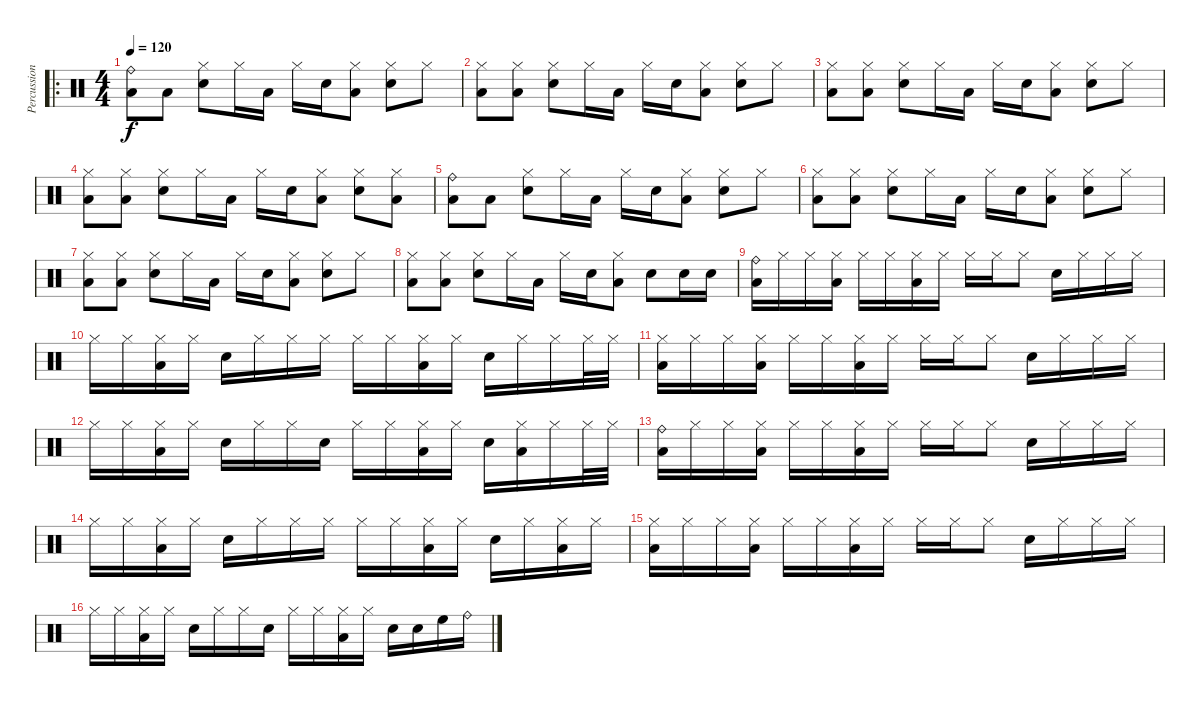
\track ("Percussion" "Percussion") {instrument percussion}
\staff {score}
\articulation defaults
\ro
\ts (4 4)
\tempo 120
\clef neutral
\ks c
("Ride (bell)" "Low Floor Tom (hit)").8{dy f} "Low Floor Tom (hit)".8 ("Hi-Hat (closed)" "Snare (hit) 2").8 "Hi-Hat (closed)".16 "Low Floor Tom (hit)".16 "Hi-Hat (closed)".16 "Snare (hit) 2".16 ("Hi-Hat (closed)" "Low Floor Tom (hit)").8 ("Hi-Hat (closed)" "Snare (hit) 2").8 "Hi-Hat (closed)".8 |
("Hi-Hat (closed)" "Low Floor Tom (hit)").8 ("Hi-Hat (closed)" "Low Floor Tom (hit)").8 ("Hi-Hat (closed)" "Snare (hit) 2").8 "Hi-Hat (closed)".16 "Low Floor Tom (hit)".16 "Hi-Hat (closed)".16 "Snare (hit) 2".16 ("Hi-Hat (closed)" "Low Floor Tom (hit)").8 ("Hi-Hat (closed)" "Snare (hit) 2").8 "Hi-Hat (closed)".8 |
("Hi-Hat (closed)" "Low Floor Tom (hit)").8 ("Hi-Hat (closed)" "Low Floor Tom (hit)").8 ("Hi-Hat (closed)" "Snare (hit) 2").8 "Hi-Hat (closed)".16 "Low Floor Tom (hit)".16 "Hi-Hat (closed)".16 "Snare (hit) 2".16 ("Hi-Hat (closed)" "Low Floor Tom (hit)").8 ("Hi-Hat (closed)" "Snare (hit) 2").8 "Hi-Hat (closed)".8 |
("Hi-Hat (closed)" "Low Floor Tom (hit)").8 ("Hi-Hat (closed)" "Low Floor Tom (hit)").8 ("Hi-Hat (closed)" "Snare (hit) 2").8 "Hi-Hat (closed)".16 "Low Floor Tom (hit)".16 "Hi-Hat (closed)".16 "Snare (hit) 2".16 ("Hi-Hat (closed)" "Low Floor Tom (hit)").8 ("Hi-Hat (closed)" "Snare (hit) 2").8 ("Hi-Hat (closed)" "Low Floor Tom (hit)").8 |
("Ride (bell)" "Low Floor Tom (hit)").8 "Low Floor Tom (hit)".8 ("Hi-Hat (closed)" "Snare (hit) 2").8 "Hi-Hat (closed)".16 "Low Floor Tom (hit)".16 "Hi-Hat (closed)".16 "Snare (hit) 2".16 ("Hi-Hat (closed)" "Low Floor Tom (hit)").8 ("Hi-Hat (closed)" "Snare (hit) 2").8 "Hi-Hat (closed)".8 |
("Hi-Hat (closed)" "Low Floor Tom (hit)").8 ("Hi-Hat (closed)" "Low Floor Tom (hit)").8 ("Hi-Hat (closed)" "Snare (hit) 2").8 "Hi-Hat (closed)".16 "Low Floor Tom (hit)".16 "Hi-Hat (closed)".16 "Snare (hit) 2".16 ("Hi-Hat (closed)" "Low Floor Tom (hit)").8 ("Hi-Hat (closed)" "Snare (hit) 2").8 "Hi-Hat (closed)".8 |
("Hi-Hat (closed)" "Low Floor Tom (hit)").8 ("Hi-Hat (closed)" "Low Floor Tom (hit)").8 ("Hi-Hat (closed)" "Snare (hit) 2").8 "Hi-Hat (closed)".16 "Low Floor Tom (hit)".16 "Hi-Hat (closed)".16 "Snare (hit) 2".16 ("Hi-Hat (closed)" "Low Floor Tom (hit)").8 ("Hi-Hat (closed)" "Snare (hit) 2").8 "Hi-Hat (closed)".8 |
("Hi-Hat (closed)" "Low Floor Tom (hit)").8 ("Hi-Hat (closed)" "Low Floor Tom (hit)").8 ("Hi-Hat (closed)" "Snare (hit) 2").8 "Hi-Hat (closed)".16 "Low Floor Tom (hit)".16 "Hi-Hat (closed)".16 "Snare (hit) 2".16 ("Hi-Hat (closed)" "Low Floor Tom (hit)").8 "Snare (hit) 2".8 "Snare (hit) 2".16 "Snare (hit) 2".16 |
("Ride (bell)" "Low Floor Tom (hit)").16 "Hi-Hat (closed)".16 "Hi-Hat (closed)".16 ("Hi-Hat (closed)" "Low Floor Tom (hit)").16 "Hi-Hat (closed)".16 "Hi-Hat (closed)".16 ("Hi-Hat (closed)" "Low Floor Tom (hit)").16 "Hi-Hat (closed)".16 "Hi-Hat (closed)".16 "Hi-Hat (closed)".16 "Hi-Hat (closed)".8 "Snare (hit) 2".16 "Hi-Hat (closed)".16 "Hi-Hat (closed)".16 "Hi-Hat (closed)".16 |
"Hi-Hat (closed)".16 "Hi-Hat (closed)".16 ("Hi-Hat (closed)" "Low Floor Tom (hit)").16 "Hi-Hat (closed)".16 "Snare (hit) 2".16 "Hi-Hat (closed)".16 "Hi-Hat (closed)".16 "Hi-Hat (closed)".16 "Hi-Hat (closed)".16 "Hi-Hat (closed)".16 ("Hi-Hat (closed)" "Low Floor Tom (hit)").16 "Hi-Hat (closed)".16 "Snare (hit) 2".16 "Hi-Hat (closed)".16 "Hi-Hat (closed)".16 "Hi-Hat (closed)".32 "Hi-Hat (closed)".32 |
("Hi-Hat (closed)" "Low Floor Tom (hit)").16 "Hi-Hat (closed)".16 "Hi-Hat (closed)".16 ("Hi-Hat (closed)" "Low Floor Tom (hit)").16 "Hi-Hat (closed)".16 "Hi-Hat (closed)".16 ("Hi-Hat (closed)" "Low Floor Tom (hit)").16 "Hi-Hat (closed)".16 "Hi-Hat (closed)".16 "Hi-Hat (closed)".16 "Hi-Hat (closed)".8 "Snare (hit) 2".16 "Hi-Hat (closed)".16 "Hi-Hat (closed)".16 "Hi-Hat (closed)".16 |
"Hi-Hat (closed)".16 "Hi-Hat (closed)".16 ("Hi-Hat (closed)" "Low Floor Tom (hit)").16 "Hi-Hat (closed)".16 "Snare (hit) 2".16 "Hi-Hat (closed)".16 "Hi-Hat (closed)".16 "Snare (hit) 2".16 "Hi-Hat (closed)".16 "Hi-Hat (closed)".16 ("Hi-Hat (closed)" "Low Floor Tom (hit)").16 "Hi-Hat (closed)".16 "Snare (hit) 2".16 ("Hi-Hat (closed)" "Low Floor Tom (hit)").16 "Hi-Hat (closed)".16 "Hi-Hat (closed)".32 "Hi-Hat (closed)".32 |
("Ride (bell)" "Low Floor Tom (hit)").16 "Hi-Hat (closed)".16 "Hi-Hat (closed)".16 ("Hi-Hat (closed)" "Low Floor Tom (hit)").16 "Hi-Hat (closed)".16 "Hi-Hat (closed)".16 ("Hi-Hat (closed)" "Low Floor Tom (hit)").16 "Hi-Hat (closed)".16 "Hi-Hat (closed)".16 "Hi-Hat (closed)".16 "Hi-Hat (closed)".8 "Snare (hit) 2".16 "Hi-Hat (closed)".16 "Hi-Hat (closed)".16 "Hi-Hat (closed)".16 |
"Hi-Hat (closed)".16 "Hi-Hat (closed)".16 ("Hi-Hat (closed)" "Low Floor Tom (hit)").16 "Hi-Hat (closed)".16 "Snare (hit) 2".16 "Hi-Hat (closed)".16 "Hi-Hat (closed)".16 "Hi-Hat (closed)".16 "Hi-Hat (closed)".16 "Hi-Hat (closed)".16 ("Hi-Hat (closed)" "Low Floor Tom (hit)").16 "Hi-Hat (closed)".16 "Snare (hit) 2".16 "Hi-Hat (closed)".16 ("Hi-Hat (closed)" "Low Floor Tom (hit)").16 "Hi-Hat (closed)".16 |
("Hi-Hat (closed)" "Low Floor Tom (hit)").16 "Hi-Hat (closed)".16 "Hi-Hat (closed)".16 ("Hi-Hat (closed)" "Low Floor Tom (hit)").16 "Hi-Hat (closed)".16 "Hi-Hat (closed)".16 ("Hi-Hat (closed)" "Low Floor Tom (hit)").16 "Hi-Hat (closed)".16 "Hi-Hat (closed)".16 "Hi-Hat (closed)".16 "Hi-Hat (closed)".8 "Snare (hit) 2".16 "Hi-Hat (closed)".16 "Hi-Hat (closed)".16 "Hi-Hat (closed)".16 |
"Hi-Hat (closed)".16 "Hi-Hat (closed)".16 ("Hi-Hat (closed)" "Low Floor Tom (hit)").16 "Hi-Hat (closed)".16 "Snare (hit) 2".16 "Hi-Hat (closed)".16 "Hi-Hat (closed)".16 "Snare (hit) 2".16 "Hi-Hat (closed)".16 "Hi-Hat (closed)".16 ("Hi-Hat (closed)" "Low Floor Tom (hit)").16 "Hi-Hat (closed)".16 "Snare (hit) 2".16 "Snare (hit) 2".16 "High Floor Tom (hit)".16 "Ride (bell)".16
